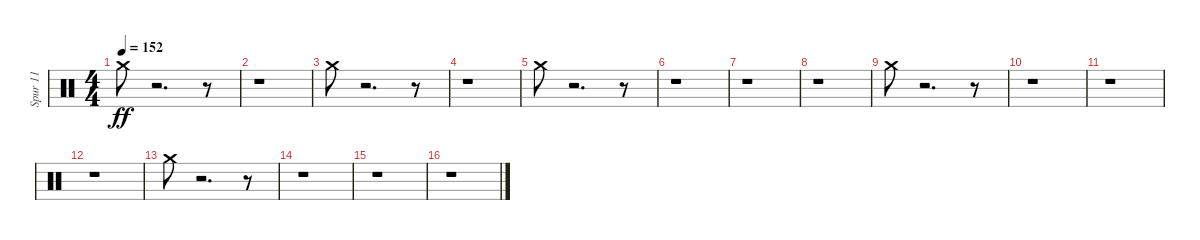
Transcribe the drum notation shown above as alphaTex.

\track ("Spur 11" "Spur 11") {instrument percussion}
\staff {score}
\articulation defaults
\ts (4 4)
\tempo 152
\clef neutral
\ks c "Crash medium (hit)".8{dy ff}
r.2{d} r.8 |
r.1 |
"Crash medium (hit)".8 r.2{d} r.8 |
r.1 |
"Crash medium (hit)".8 r.2{d} r.8 |
r.1 |
r.1 |
r.1 |
"Crash medium (hit)".8 r.2{d} r.8 |
r.1 |
r.1 |
r.1 |
"Crash medium (hit)".8 r.2{d} r.8 |
r.1 |
r.1 |
r.1
